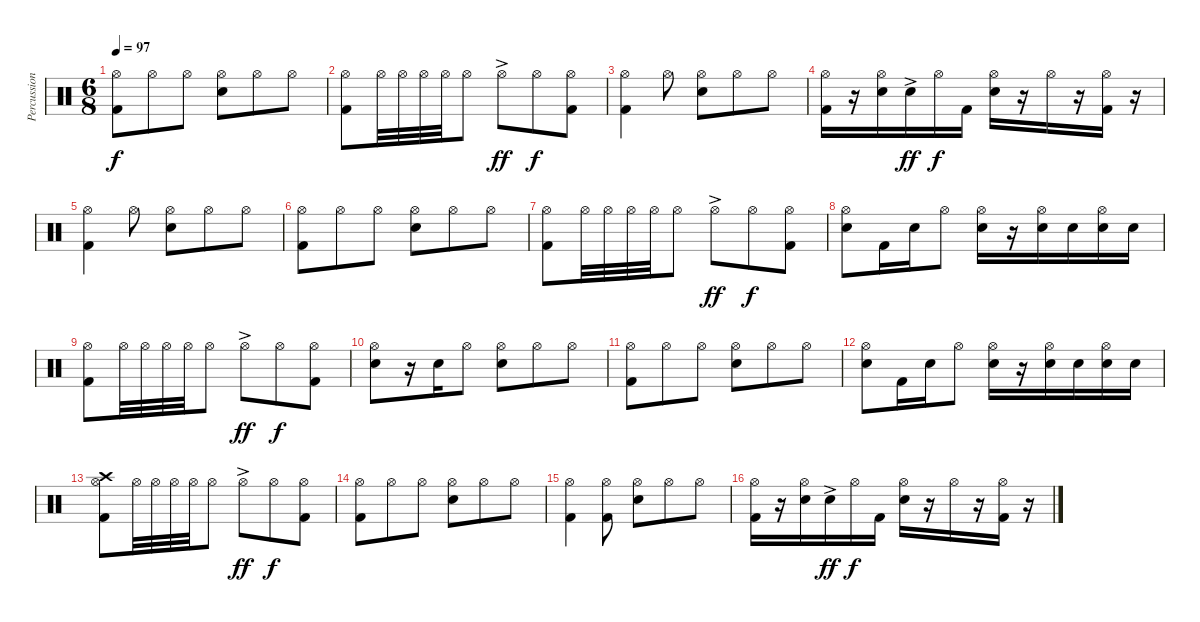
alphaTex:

\track ("Percussion" "Percussion") {instrument percussion}
\staff {score}
\articulation defaults
\ts (6 8)
\tempo 97
\clef neutral
\ks c
("Hi-Hat (open)" "Kick (hit) 2").8{dy f} "Hi-Hat (open)".8 "Hi-Hat (open)".8 ("Hi-Hat (open)" "Electric Snare (hit)").8 "Hi-Hat (open)".8 "Hi-Hat (open)".8 |
("Hi-Hat (open)" "Kick (hit) 2").8 "Hi-Hat (open)".32 "Hi-Hat (open)".32 "Hi-Hat (open)".32 "Hi-Hat (open)".32 "Hi-Hat (open)".8 "Hi-Hat (open)"{ac}.8{dy ff} "Hi-Hat (open)".8{dy f} ("Hi-Hat (open)" "Kick (hit) 2").8 |
("Hi-Hat (open)" "Kick (hit) 2").4 "Hi-Hat (open)".8 ("Hi-Hat (open)" "Electric Snare (hit)").8 "Hi-Hat (open)".8 "Hi-Hat (open)".8 |
("Hi-Hat (open)" "Kick (hit) 2").16 r.16 ("Hi-Hat (open)" "Electric Snare (hit)").16 "Electric Snare (hit)"{ac}.16{dy ff} "Hi-Hat (open)".16{dy f} "Kick (hit) 2".16 ("Hi-Hat (open)" "Electric Snare (hit)").16 r.16 "Hi-Hat (open)".16 r.16 ("Hi-Hat (open)" "Kick (hit) 2").16 r.16 |
("Hi-Hat (open)" "Kick (hit) 2").4 "Hi-Hat (open)".8 ("Hi-Hat (open)" "Electric Snare (hit)").8 "Hi-Hat (open)".8 "Hi-Hat (open)".8 |
("Hi-Hat (open)" "Kick (hit) 2").8 "Hi-Hat (open)".8 "Hi-Hat (open)".8 ("Hi-Hat (open)" "Electric Snare (hit)").8 "Hi-Hat (open)".8 "Hi-Hat (open)".8 |
("Hi-Hat (open)" "Kick (hit) 2").8 "Hi-Hat (open)".32 "Hi-Hat (open)".32 "Hi-Hat (open)".32 "Hi-Hat (open)".32 "Hi-Hat (open)".8 "Hi-Hat (open)"{ac}.8{dy ff} "Hi-Hat (open)".8{dy f} ("Hi-Hat (open)" "Kick (hit) 2").8 |
("Hi-Hat (open)" "Electric Snare (hit)").8 "Kick (hit) 2".16 "Electric Snare (hit)".16 "Hi-Hat (open)".8 ("Hi-Hat (open)" "Electric Snare (hit)").16 r.16 ("Hi-Hat (open)" "Electric Snare (hit)").16 "Electric Snare (hit)".16 ("Hi-Hat (open)" "Electric Snare (hit)").16 "Electric Snare (hit)".16 |
("Hi-Hat (open)" "Kick (hit) 2").8 "Hi-Hat (open)".32 "Hi-Hat (open)".32 "Hi-Hat (open)".32 "Hi-Hat (open)".32 "Hi-Hat (open)".8 "Hi-Hat (open)"{ac}.8{dy ff} "Hi-Hat (open)".8{dy f} ("Hi-Hat (open)" "Kick (hit) 2").8 |
("Hi-Hat (open)" "Electric Snare (hit)").8 r.16 "Electric Snare (hit)".16 "Hi-Hat (open)".8 ("Hi-Hat (open)" "Electric Snare (hit)").8 "Hi-Hat (open)".8 "Hi-Hat (open)".8 |
("Hi-Hat (open)" "Kick (hit) 2").8 "Hi-Hat (open)".8 "Hi-Hat (open)".8 ("Hi-Hat (open)" "Electric Snare (hit)").8 "Hi-Hat (open)".8 "Hi-Hat (open)".8 |
("Hi-Hat (open)" "Electric Snare (hit)").8 "Kick (hit) 2".16 "Electric Snare (hit)".16 "Hi-Hat (open)".8 ("Hi-Hat (open)" "Electric Snare (hit)").16 r.16 ("Hi-Hat (open)" "Electric Snare (hit)").16 "Electric Snare (hit)".16 ("Hi-Hat (open)" "Electric Snare (hit)").16 "Electric Snare (hit)".16 |
("Crash high (hit)" "Hi-Hat (open)" "Kick (hit) 2").8 "Hi-Hat (open)".32 "Hi-Hat (open)".32 "Hi-Hat (open)".32 "Hi-Hat (open)".32 "Hi-Hat (open)".8 "Hi-Hat (open)"{ac}.8{dy ff} "Hi-Hat (open)".8{dy f} ("Hi-Hat (open)" "Kick (hit) 2").8 |
("Hi-Hat (open)" "Kick (hit) 2").8 "Hi-Hat (open)".8 "Hi-Hat (open)".8 ("Hi-Hat (open)" "Electric Snare (hit)").8 "Hi-Hat (open)".8 "Hi-Hat (open)".8 |
("Hi-Hat (open)" "Kick (hit) 2").4 ("Hi-Hat (open)" "Kick (hit) 2").8 ("Hi-Hat (open)" "Electric Snare (hit)").8 "Hi-Hat (open)".8 "Hi-Hat (open)".8 |
("Hi-Hat (open)" "Kick (hit) 2").16 r.16 ("Hi-Hat (open)" "Electric Snare (hit)").16 "Electric Snare (hit)"{ac}.16{dy ff} "Hi-Hat (open)".16{dy f} "Kick (hit) 2".16 ("Hi-Hat (open)" "Electric Snare (hit)").16 r.16 "Hi-Hat (open)".16 r.16 ("Hi-Hat (open)" "Kick (hit) 2").16 r.16
